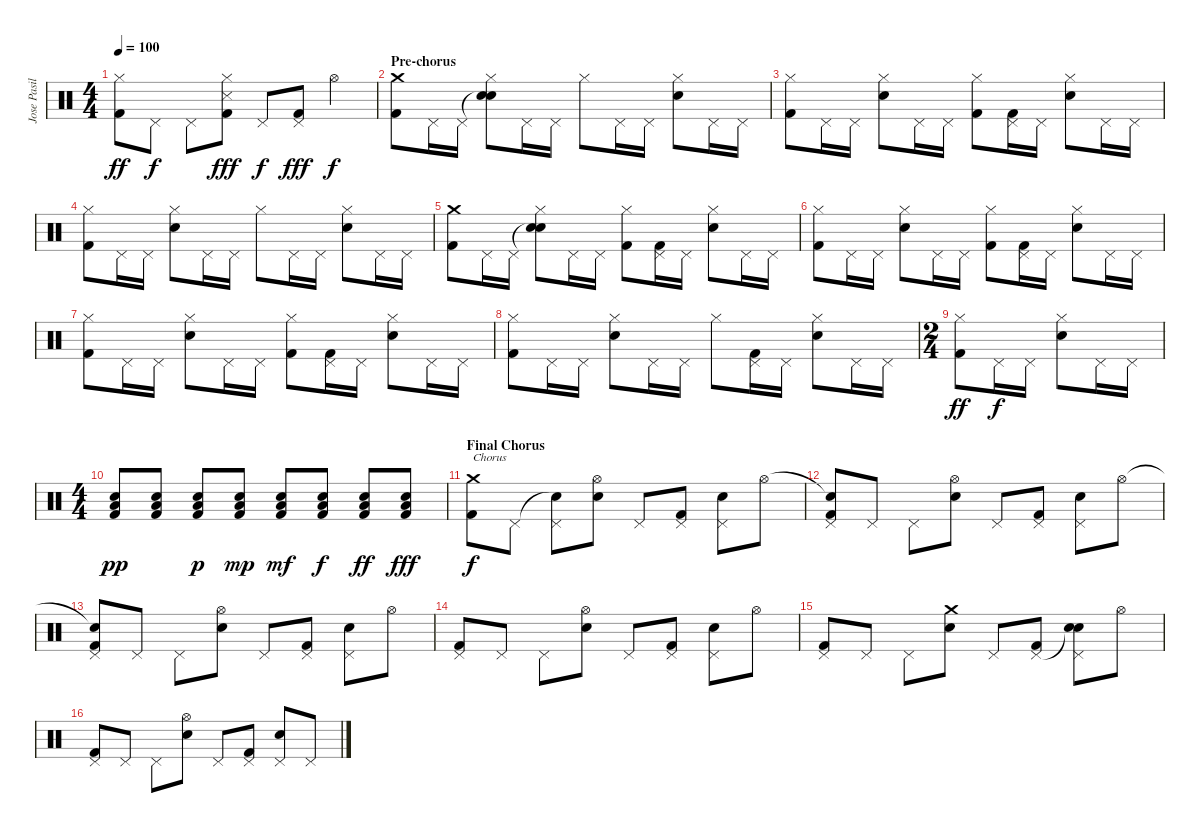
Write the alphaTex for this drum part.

\track ("Jose Pasillas III" "Jose Pasil") {instrument percussion}
\staff {score}
\articulation defaults
\ts (4 4)
\tempo 100
\clef neutral
\ks c
("Hi-Hat (closed)" "Kick (hit) 2").8{dy ff} "Pedal Hi-Hat (hit)".8{dy f} "Pedal Hi-Hat (hit)".8 ("Hi-Hat (closed)" "Snare (side stick) 3" "Kick (hit) 2").8{dy fff} "Pedal Hi-Hat (hit)".8{dy f} ("Pedal Hi-Hat (hit)" "Kick (hit) 2").8{dy fff} "Hi-Hat (open)".4{dy f} |
\section ("" "Pre-chorus")
("Crash medium (hit)" "Kick (hit) 2").8 "Pedal Hi-Hat (hit)".16 "Pedal Hi-Hat (hit)".16 ("Snare (hit)"{t} "Hi-Hat (closed)" "Electric Snare (hit)").8 "Pedal Hi-Hat (hit)".16 "Pedal Hi-Hat (hit)".16 "Hi-Hat (closed)".8 "Pedal Hi-Hat (hit)".16 "Pedal Hi-Hat (hit)".16 ("Hi-Hat (closed)" "Electric Snare (hit)").8 "Pedal Hi-Hat (hit)".16 "Pedal Hi-Hat (hit)".16 |
("Hi-Hat (closed)" "Kick (hit) 2").8 "Pedal Hi-Hat (hit)".16 "Pedal Hi-Hat (hit)".16 ("Hi-Hat (closed)" "Electric Snare (hit)").8 "Pedal Hi-Hat (hit)".16 "Pedal Hi-Hat (hit)".16 ("Hi-Hat (closed)" "Kick (hit) 2").8 ("Pedal Hi-Hat (hit)" "Kick (hit) 2").16 "Pedal Hi-Hat (hit)".16 ("Hi-Hat (closed)" "Electric Snare (hit)").8 "Pedal Hi-Hat (hit)".16 "Pedal Hi-Hat (hit)".16 |
("Hi-Hat (closed)" "Kick (hit) 2").8 "Pedal Hi-Hat (hit)".16 "Pedal Hi-Hat (hit)".16 ("Hi-Hat (closed)" "Electric Snare (hit)").8 "Pedal Hi-Hat (hit)".16 "Pedal Hi-Hat (hit)".16 "Hi-Hat (closed)".8 "Pedal Hi-Hat (hit)".16 "Pedal Hi-Hat (hit)".16 ("Hi-Hat (closed)" "Electric Snare (hit)").8 "Pedal Hi-Hat (hit)".16 "Pedal Hi-Hat (hit)".16 |
("Crash medium (hit)" "Kick (hit) 2").8 "Pedal Hi-Hat (hit)".16 "Pedal Hi-Hat (hit)".16 ("Snare (hit)"{t} "Hi-Hat (closed)" "Electric Snare (hit)").8 "Pedal Hi-Hat (hit)".16 "Pedal Hi-Hat (hit)".16 ("Hi-Hat (closed)" "Kick (hit) 2").8 ("Pedal Hi-Hat (hit)" "Kick (hit) 2").16 "Pedal Hi-Hat (hit)".16 ("Hi-Hat (closed)" "Electric Snare (hit)").8 "Pedal Hi-Hat (hit)".16 "Pedal Hi-Hat (hit)".16 |
("Hi-Hat (closed)" "Kick (hit) 2").8 "Pedal Hi-Hat (hit)".16 "Pedal Hi-Hat (hit)".16 ("Hi-Hat (closed)" "Electric Snare (hit)").8 "Pedal Hi-Hat (hit)".16 "Pedal Hi-Hat (hit)".16 ("Hi-Hat (closed)" "Kick (hit) 2").8 ("Pedal Hi-Hat (hit)" "Kick (hit) 2").16 "Pedal Hi-Hat (hit)".16 ("Hi-Hat (closed)" "Electric Snare (hit)").8 "Pedal Hi-Hat (hit)".16 "Pedal Hi-Hat (hit)".16 |
("Hi-Hat (closed)" "Kick (hit) 2").8 "Pedal Hi-Hat (hit)".16 "Pedal Hi-Hat (hit)".16 ("Hi-Hat (closed)" "Electric Snare (hit)").8 "Pedal Hi-Hat (hit)".16 "Pedal Hi-Hat (hit)".16 ("Hi-Hat (closed)" "Kick (hit) 2").8 ("Pedal Hi-Hat (hit)" "Kick (hit) 2").16 "Pedal Hi-Hat (hit)".16 ("Hi-Hat (closed)" "Electric Snare (hit)").8 "Pedal Hi-Hat (hit)".16 "Pedal Hi-Hat (hit)".16 |
("Hi-Hat (closed)" "Kick (hit) 2").8 "Pedal Hi-Hat (hit)".16 "Pedal Hi-Hat (hit)".16 ("Hi-Hat (closed)" "Electric Snare (hit)").8 "Pedal Hi-Hat (hit)".16 "Pedal Hi-Hat (hit)".16 "Hi-Hat (closed)".8 ("Pedal Hi-Hat (hit)" "Kick (hit) 2").16 "Pedal Hi-Hat (hit)".16 ("Hi-Hat (closed)" "Electric Snare (hit)").8 "Pedal Hi-Hat (hit)".16 "Pedal Hi-Hat (hit)".16 |
\ts (2 4)
("Hi-Hat (closed)" "Kick (hit) 2").8{dy ff} "Pedal Hi-Hat (hit)".16{dy f} "Pedal Hi-Hat (hit)".16 ("Hi-Hat (closed)" "Electric Snare (hit)").8 "Pedal Hi-Hat (hit)".16 "Pedal Hi-Hat (hit)".16 |
\ts (4 4)
("Electric Snare (hit)" "Low Tom (hit)" "Kick (hit) 2").8{dy pp} ("Electric Snare (hit)" "Low Tom (hit)" "Kick (hit) 2").8 ("Electric Snare (hit)" "Low Tom (hit)" "Kick (hit) 2").8{dy p} ("Electric Snare (hit)" "Low Tom (hit)" "Kick (hit) 2").8{dy mp} ("Electric Snare (hit)" "Low Tom (hit)" "Kick (hit) 2").8{dy mf} ("Electric Snare (hit)" "Low Tom (hit)" "Kick (hit) 2").8{dy f} ("Electric Snare (hit)" "Low Tom (hit)" "Kick (hit) 2").8{dy ff} ("Electric Snare (hit)" "Low Tom (hit)" "Kick (hit) 2").8{dy fff} |
\section ("" "Final Chorus")
("Crash medium (hit)" "Kick (hit) 2").8{txt "Chorus" dy f} "Pedal Hi-Hat (hit)".8 ("Snare (hit)"{t} "Pedal Hi-Hat (hit)").8 ("Hi-Hat (open)" "Electric Snare (hit)").8 "Pedal Hi-Hat (hit)".8 ("Pedal Hi-Hat (hit)" "Kick (hit) 2").8 ("Pedal Hi-Hat (hit)" "Electric Snare (hit)").8 "Hi-Hat (open)".8 |
("Snare (hit)"{t} "Pedal Hi-Hat (hit)" "Kick (hit) 2").8 "Pedal Hi-Hat (hit)".8 "Pedal Hi-Hat (hit)".8 ("Hi-Hat (open)" "Electric Snare (hit)").8 "Pedal Hi-Hat (hit)".8 ("Pedal Hi-Hat (hit)" "Kick (hit) 2").8 ("Pedal Hi-Hat (hit)" "Electric Snare (hit)").8 "Hi-Hat (open)".8 |
("Snare (hit)"{t} "Pedal Hi-Hat (hit)" "Kick (hit) 2").8 "Pedal Hi-Hat (hit)".8 "Pedal Hi-Hat (hit)".8 ("Hi-Hat (open)" "Electric Snare (hit)").8 "Pedal Hi-Hat (hit)".8 ("Pedal Hi-Hat (hit)" "Kick (hit) 2").8 ("Pedal Hi-Hat (hit)" "Electric Snare (hit)").8 "Hi-Hat (open)".8 |
("Pedal Hi-Hat (hit)" "Kick (hit) 2").8 "Pedal Hi-Hat (hit)".8 "Pedal Hi-Hat (hit)".8 ("Hi-Hat (open)" "Electric Snare (hit)").8 "Pedal Hi-Hat (hit)".8 ("Pedal Hi-Hat (hit)" "Kick (hit) 2").8 ("Pedal Hi-Hat (hit)" "Electric Snare (hit)").8 "Hi-Hat (open)".8 |
("Pedal Hi-Hat (hit)" "Kick (hit) 2").8 "Pedal Hi-Hat (hit)".8 "Pedal Hi-Hat (hit)".8 ("Crash medium (hit)" "Electric Snare (hit)").8 "Pedal Hi-Hat (hit)".8 ("Pedal Hi-Hat (hit)" "Kick (hit) 2").8 ("Snare (hit)"{t} "Pedal Hi-Hat (hit)" "Electric Snare (hit)").8 "Hi-Hat (open)".8 |
("Pedal Hi-Hat (hit)" "Kick (hit) 2").8 "Pedal Hi-Hat (hit)".8 "Pedal Hi-Hat (hit)".8 ("Hi-Hat (open)" "Electric Snare (hit)").8 "Pedal Hi-Hat (hit)".8 ("Pedal Hi-Hat (hit)" "Kick (hit) 2").8 ("Pedal Hi-Hat (hit)" "Electric Snare (hit)").8 "Pedal Hi-Hat (hit)".8
